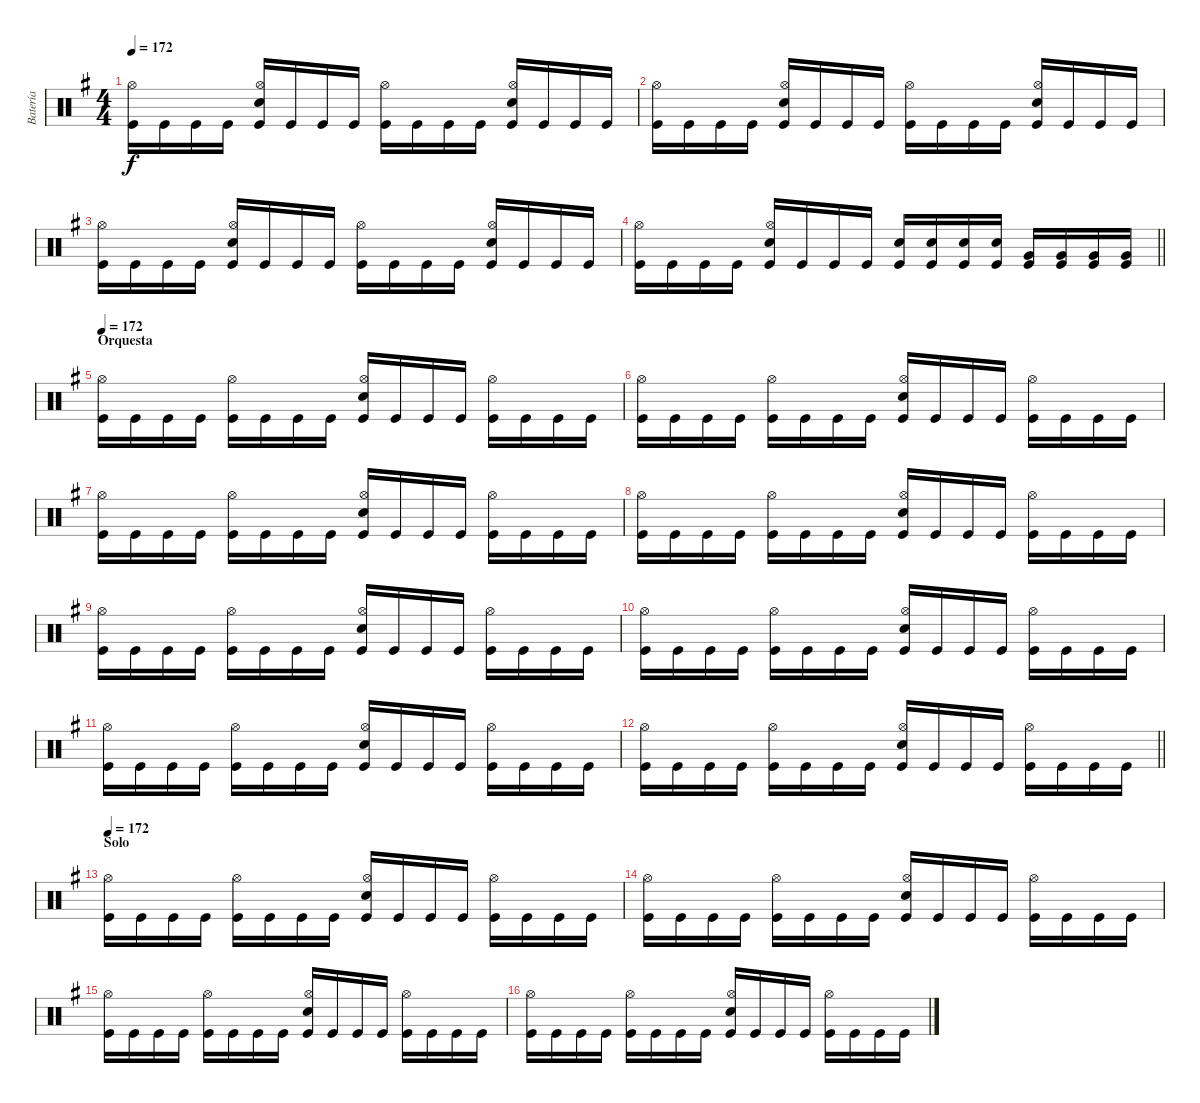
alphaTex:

\track ("Batería" "Batería") {instrument percussion}
\staff {score}
\articulation defaults
\ts (4 4)
\tempo 172
\clef neutral
\ks eminor
("Kick (hit)" "Hi-Hat (open)").16{dy f} "Kick (hit)".16 "Kick (hit)".16 "Kick (hit)".16 ("Kick (hit)" "Hi-Hat (open)" "Electric Snare (hit)").16 "Kick (hit)".16 "Kick (hit)".16 "Kick (hit)".16 ("Kick (hit)" "Hi-Hat (open)").16 "Kick (hit)".16 "Kick (hit)".16 "Kick (hit)".16 ("Kick (hit)" "Hi-Hat (open)" "Electric Snare (hit)").16 "Kick (hit)".16 "Kick (hit)".16 "Kick (hit)".16 |
("Kick (hit)" "Hi-Hat (open)").16 "Kick (hit)".16 "Kick (hit)".16 "Kick (hit)".16 ("Kick (hit)" "Hi-Hat (open)" "Electric Snare (hit)").16 "Kick (hit)".16 "Kick (hit)".16 "Kick (hit)".16 ("Kick (hit)" "Hi-Hat (open)").16 "Kick (hit)".16 "Kick (hit)".16 "Kick (hit)".16 ("Kick (hit)" "Hi-Hat (open)" "Electric Snare (hit)").16 "Kick (hit)".16 "Kick (hit)".16 "Kick (hit)".16 |
("Kick (hit)" "Hi-Hat (open)").16 "Kick (hit)".16 "Kick (hit)".16 "Kick (hit)".16 ("Kick (hit)" "Hi-Hat (open)" "Electric Snare (hit)").16 "Kick (hit)".16 "Kick (hit)".16 "Kick (hit)".16 ("Kick (hit)" "Hi-Hat (open)").16 "Kick (hit)".16 "Kick (hit)".16 "Kick (hit)".16 ("Kick (hit)" "Hi-Hat (open)" "Electric Snare (hit)").16 "Kick (hit)".16 "Kick (hit)".16 "Kick (hit)".16 |
\barLineRight lightlight
("Kick (hit)" "Hi-Hat (open)").16 "Kick (hit)".16 "Kick (hit)".16 "Kick (hit)".16 ("Kick (hit)" "Hi-Hat (open)" "Electric Snare (hit)").16 "Kick (hit)".16 "Kick (hit)".16 "Kick (hit)".16 ("Kick (hit)" "Electric Snare (hit)").16 ("Kick (hit)" "Electric Snare (hit)").16 ("Kick (hit)" "Electric Snare (hit)").16 ("Kick (hit)" "Electric Snare (hit)").16 ("Kick (hit)" "Very Low Tom (hit)").16 ("Kick (hit)" "Very Low Tom (hit)").16 ("Kick (hit)" "Very Low Tom (hit)").16 ("Kick (hit)" "Very Low Tom (hit)").16 |
\section ("" "Orquesta")
\tempo 172
("Kick (hit)" "Hi-Hat (open)").16 "Kick (hit)".16 "Kick (hit)".16 "Kick (hit)".16 ("Kick (hit)" "Hi-Hat (open)").16 "Kick (hit)".16 "Kick (hit)".16 "Kick (hit)".16 ("Kick (hit)" "Hi-Hat (open)" "Electric Snare (hit)").16 "Kick (hit)".16 "Kick (hit)".16 "Kick (hit)".16 ("Kick (hit)" "Hi-Hat (open)").16 "Kick (hit)".16 "Kick (hit)".16 "Kick (hit)".16 |
("Kick (hit)" "Hi-Hat (open)").16 "Kick (hit)".16 "Kick (hit)".16 "Kick (hit)".16 ("Kick (hit)" "Hi-Hat (open)").16 "Kick (hit)".16 "Kick (hit)".16 "Kick (hit)".16 ("Kick (hit)" "Hi-Hat (open)" "Electric Snare (hit)").16 "Kick (hit)".16 "Kick (hit)".16 "Kick (hit)".16 ("Kick (hit)" "Hi-Hat (open)").16 "Kick (hit)".16 "Kick (hit)".16 "Kick (hit)".16 |
("Kick (hit)" "Hi-Hat (open)").16 "Kick (hit)".16 "Kick (hit)".16 "Kick (hit)".16 ("Kick (hit)" "Hi-Hat (open)").16 "Kick (hit)".16 "Kick (hit)".16 "Kick (hit)".16 ("Kick (hit)" "Hi-Hat (open)" "Electric Snare (hit)").16 "Kick (hit)".16 "Kick (hit)".16 "Kick (hit)".16 ("Kick (hit)" "Hi-Hat (open)").16 "Kick (hit)".16 "Kick (hit)".16 "Kick (hit)".16 |
("Kick (hit)" "Hi-Hat (open)").16 "Kick (hit)".16 "Kick (hit)".16 "Kick (hit)".16 ("Kick (hit)" "Hi-Hat (open)").16 "Kick (hit)".16 "Kick (hit)".16 "Kick (hit)".16 ("Kick (hit)" "Hi-Hat (open)" "Electric Snare (hit)").16 "Kick (hit)".16 "Kick (hit)".16 "Kick (hit)".16 ("Kick (hit)" "Hi-Hat (open)").16 "Kick (hit)".16 "Kick (hit)".16 "Kick (hit)".16 |
("Kick (hit)" "Hi-Hat (open)").16 "Kick (hit)".16 "Kick (hit)".16 "Kick (hit)".16 ("Kick (hit)" "Hi-Hat (open)").16 "Kick (hit)".16 "Kick (hit)".16 "Kick (hit)".16 ("Kick (hit)" "Hi-Hat (open)" "Electric Snare (hit)").16 "Kick (hit)".16 "Kick (hit)".16 "Kick (hit)".16 ("Kick (hit)" "Hi-Hat (open)").16 "Kick (hit)".16 "Kick (hit)".16 "Kick (hit)".16 |
("Kick (hit)" "Hi-Hat (open)").16 "Kick (hit)".16 "Kick (hit)".16 "Kick (hit)".16 ("Kick (hit)" "Hi-Hat (open)").16 "Kick (hit)".16 "Kick (hit)".16 "Kick (hit)".16 ("Kick (hit)" "Hi-Hat (open)" "Electric Snare (hit)").16 "Kick (hit)".16 "Kick (hit)".16 "Kick (hit)".16 ("Kick (hit)" "Hi-Hat (open)").16 "Kick (hit)".16 "Kick (hit)".16 "Kick (hit)".16 |
("Kick (hit)" "Hi-Hat (open)").16 "Kick (hit)".16 "Kick (hit)".16 "Kick (hit)".16 ("Kick (hit)" "Hi-Hat (open)").16 "Kick (hit)".16 "Kick (hit)".16 "Kick (hit)".16 ("Kick (hit)" "Hi-Hat (open)" "Electric Snare (hit)").16 "Kick (hit)".16 "Kick (hit)".16 "Kick (hit)".16 ("Kick (hit)" "Hi-Hat (open)").16 "Kick (hit)".16 "Kick (hit)".16 "Kick (hit)".16 |
\barLineRight lightlight
("Kick (hit)" "Hi-Hat (open)").16 "Kick (hit)".16 "Kick (hit)".16 "Kick (hit)".16 ("Kick (hit)" "Hi-Hat (open)").16 "Kick (hit)".16 "Kick (hit)".16 "Kick (hit)".16 ("Kick (hit)" "Hi-Hat (open)" "Electric Snare (hit)").16 "Kick (hit)".16 "Kick (hit)".16 "Kick (hit)".16 ("Kick (hit)" "Hi-Hat (open)").16 "Kick (hit)".16 "Kick (hit)".16 "Kick (hit)".16 |
\section ("" "Solo")
\tempo 172
("Kick (hit)" "Hi-Hat (open)").16 "Kick (hit)".16 "Kick (hit)".16 "Kick (hit)".16 ("Kick (hit)" "Hi-Hat (open)").16 "Kick (hit)".16 "Kick (hit)".16 "Kick (hit)".16 ("Kick (hit)" "Hi-Hat (open)" "Electric Snare (hit)").16 "Kick (hit)".16 "Kick (hit)".16 "Kick (hit)".16 ("Kick (hit)" "Hi-Hat (open)").16 "Kick (hit)".16 "Kick (hit)".16 "Kick (hit)".16 |
("Kick (hit)" "Hi-Hat (open)").16 "Kick (hit)".16 "Kick (hit)".16 "Kick (hit)".16 ("Kick (hit)" "Hi-Hat (open)").16 "Kick (hit)".16 "Kick (hit)".16 "Kick (hit)".16 ("Kick (hit)" "Hi-Hat (open)" "Electric Snare (hit)").16 "Kick (hit)".16 "Kick (hit)".16 "Kick (hit)".16 ("Kick (hit)" "Hi-Hat (open)").16 "Kick (hit)".16 "Kick (hit)".16 "Kick (hit)".16 |
("Kick (hit)" "Hi-Hat (open)").16 "Kick (hit)".16 "Kick (hit)".16 "Kick (hit)".16 ("Kick (hit)" "Hi-Hat (open)").16 "Kick (hit)".16 "Kick (hit)".16 "Kick (hit)".16 ("Kick (hit)" "Hi-Hat (open)" "Electric Snare (hit)").16 "Kick (hit)".16 "Kick (hit)".16 "Kick (hit)".16 ("Kick (hit)" "Hi-Hat (open)").16 "Kick (hit)".16 "Kick (hit)".16 "Kick (hit)".16 |
("Kick (hit)" "Hi-Hat (open)").16 "Kick (hit)".16 "Kick (hit)".16 "Kick (hit)".16 ("Kick (hit)" "Hi-Hat (open)").16 "Kick (hit)".16 "Kick (hit)".16 "Kick (hit)".16 ("Kick (hit)" "Hi-Hat (open)" "Electric Snare (hit)").16 "Kick (hit)".16 "Kick (hit)".16 "Kick (hit)".16 ("Kick (hit)" "Hi-Hat (open)").16 "Kick (hit)".16 "Kick (hit)".16 "Kick (hit)".16
